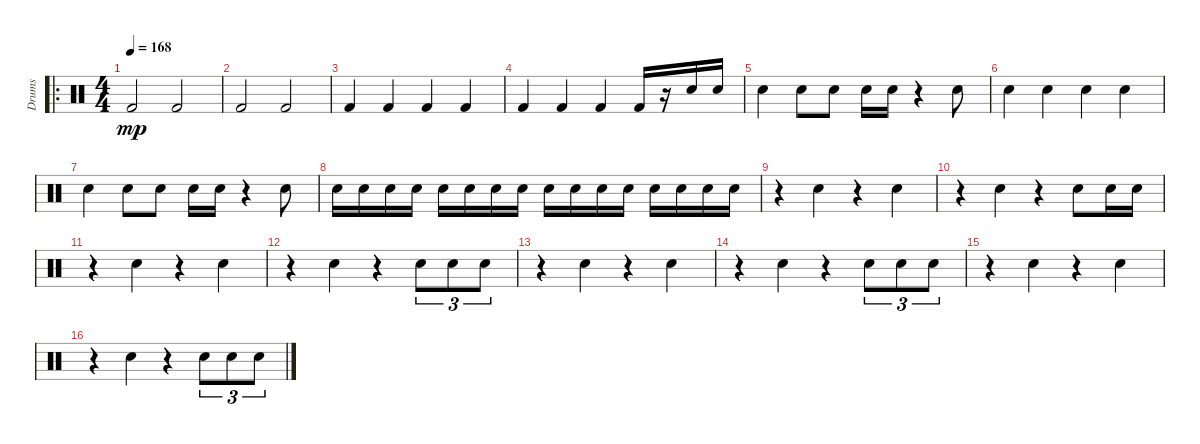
\track ("Drums" "Drums") {instrument percussion}
\staff {score}
\articulation defaults
\ro
\ts (4 4)
\tempo 168
\clef neutral
\ks c "Kick (hit) 2".2{dy mp} "Kick (hit) 2".2
|
"Kick (hit) 2".2 "Kick (hit) 2".2 |
"Kick (hit) 2".4 "Kick (hit) 2".4 "Kick (hit) 2".4 "Kick (hit) 2".4 |
"Kick (hit) 2".4 "Kick (hit) 2".4 "Kick (hit) 2".4 "Kick (hit) 2".16 r.16 "Snare (hit) 2".16 "Snare (hit) 2".16 |
"Snare (hit) 2".4 "Snare (hit) 2".8 "Snare (hit) 2".8 "Snare (hit) 2".16 "Snare (hit) 2".16 r.4 "Snare (hit) 2".8 |
"Snare (hit) 2".4 "Snare (hit) 2".4 "Snare (hit) 2".4 "Snare (hit) 2".4 |
"Snare (hit) 2".4 "Snare (hit) 2".8 "Snare (hit) 2".8 "Snare (hit) 2".16 "Snare (hit) 2".16 r.4 "Snare (hit) 2".8 |
"Snare (hit) 2".16 "Snare (hit) 2".16 "Snare (hit) 2".16 "Snare (hit) 2".16 "Snare (hit) 2".16 "Snare (hit) 2".16 "Snare (hit) 2".16 "Snare (hit) 2".16 "Snare (hit) 2".16 "Snare (hit) 2".16 "Snare (hit) 2".16 "Snare (hit) 2".16 "Snare (hit) 2".16 "Snare (hit) 2".16 "Snare (hit) 2".16 "Snare (hit) 2".16 |
r.4 "Snare (hit) 2".4 r.4 "Snare (hit) 2".4 |
r.4 "Snare (hit) 2".4 r.4 "Snare (hit) 2".8 "Snare (hit) 2".16 "Snare (hit) 2".16 |
r.4 "Snare (hit) 2".4 r.4 "Snare (hit) 2".4 |
r.4 "Snare (hit) 2".4 r.4 "Snare (hit) 2".8{tu (3 2)} "Snare (hit) 2".8{tu (3 2)} "Snare (hit) 2".8{tu (3 2)} |
r.4 "Snare (hit) 2".4 r.4 "Snare (hit) 2".4 |
r.4 "Snare (hit) 2".4 r.4 "Snare (hit) 2".8{tu (3 2)} "Snare (hit) 2".8{tu (3 2)} "Snare (hit) 2".8{tu (3 2)} |
r.4 "Snare (hit) 2".4 r.4 "Snare (hit) 2".4 |
r.4 "Snare (hit) 2".4 r.4 "Snare (hit) 2".8{tu (3 2)} "Snare (hit) 2".8{tu (3 2)} "Snare (hit) 2".8{tu (3 2)}
